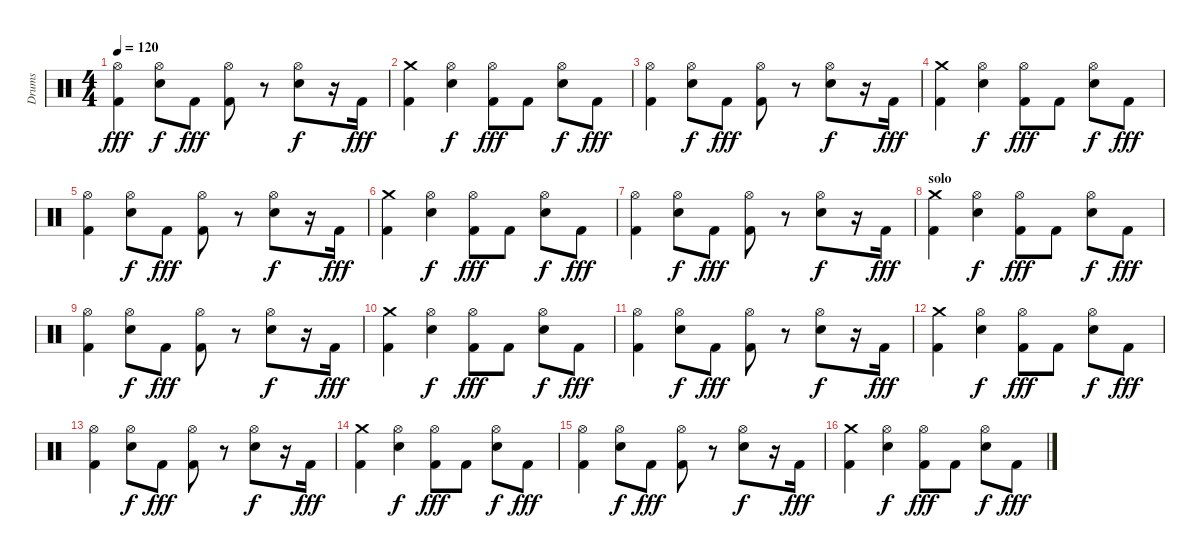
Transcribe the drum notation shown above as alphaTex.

\track ("Drums" "Drums") {instrument percussion}
\staff {score}
\articulation defaults
\ts (4 4)
\tempo 120
\clef neutral
\ks c
("Kick (hit) 2" "Hi-Hat (open)").4{dy fff} ("Electric Snare (hit)" "Hi-Hat (open)").8{dy f} "Kick (hit) 2".8{dy fff} ("Kick (hit) 2" "Hi-Hat (open)").8 r.8 ("Electric Snare (hit)" "Hi-Hat (open)").8{dy f} r.16 "Kick (hit) 2".16{dy fff} |
("Kick (hit) 2" "Crash medium (hit)").4 ("Electric Snare (hit)" "Hi-Hat (open)").4{dy f} ("Kick (hit) 2" "Hi-Hat (open)").8{dy fff} "Kick (hit) 2".8 ("Electric Snare (hit)" "Hi-Hat (open)").8{dy f} "Kick (hit) 2".8{dy fff} |
("Kick (hit) 2" "Hi-Hat (open)").4 ("Electric Snare (hit)" "Hi-Hat (open)").8{dy f} "Kick (hit) 2".8{dy fff} ("Kick (hit) 2" "Hi-Hat (open)").8 r.8 ("Electric Snare (hit)" "Hi-Hat (open)").8{dy f} r.16 "Kick (hit) 2".16{dy fff} |
("Kick (hit) 2" "Crash medium (hit)").4 ("Electric Snare (hit)" "Hi-Hat (open)").4{dy f} ("Kick (hit) 2" "Hi-Hat (open)").8{dy fff} "Kick (hit) 2".8 ("Electric Snare (hit)" "Hi-Hat (open)").8{dy f} "Kick (hit) 2".8{dy fff} |
("Kick (hit) 2" "Hi-Hat (open)").4 ("Electric Snare (hit)" "Hi-Hat (open)").8{dy f} "Kick (hit) 2".8{dy fff} ("Kick (hit) 2" "Hi-Hat (open)").8 r.8 ("Electric Snare (hit)" "Hi-Hat (open)").8{dy f} r.16 "Kick (hit) 2".16{dy fff} |
("Kick (hit) 2" "Crash medium (hit)").4 ("Electric Snare (hit)" "Hi-Hat (open)").4{dy f} ("Kick (hit) 2" "Hi-Hat (open)").8{dy fff} "Kick (hit) 2".8 ("Electric Snare (hit)" "Hi-Hat (open)").8{dy f} "Kick (hit) 2".8{dy fff} |
("Kick (hit) 2" "Hi-Hat (open)").4 ("Electric Snare (hit)" "Hi-Hat (open)").8{dy f} "Kick (hit) 2".8{dy fff} ("Kick (hit) 2" "Hi-Hat (open)").8 r.8 ("Electric Snare (hit)" "Hi-Hat (open)").8{dy f} r.16 "Kick (hit) 2".16{dy fff} |
\section ("" "solo")
("Kick (hit) 2" "Crash medium (hit)").4 ("Electric Snare (hit)" "Hi-Hat (open)").4{dy f} ("Kick (hit) 2" "Hi-Hat (open)").8{dy fff} "Kick (hit) 2".8 ("Electric Snare (hit)" "Hi-Hat (open)").8{dy f} "Kick (hit) 2".8{dy fff} |
("Kick (hit) 2" "Hi-Hat (open)").4 ("Electric Snare (hit)" "Hi-Hat (open)").8{dy f} "Kick (hit) 2".8{dy fff} ("Kick (hit) 2" "Hi-Hat (open)").8 r.8 ("Electric Snare (hit)" "Hi-Hat (open)").8{dy f} r.16 "Kick (hit) 2".16{dy fff} |
("Kick (hit) 2" "Crash medium (hit)").4 ("Electric Snare (hit)" "Hi-Hat (open)").4{dy f} ("Kick (hit) 2" "Hi-Hat (open)").8{dy fff} "Kick (hit) 2".8 ("Electric Snare (hit)" "Hi-Hat (open)").8{dy f} "Kick (hit) 2".8{dy fff} |
("Kick (hit) 2" "Hi-Hat (open)").4 ("Electric Snare (hit)" "Hi-Hat (open)").8{dy f} "Kick (hit) 2".8{dy fff} ("Kick (hit) 2" "Hi-Hat (open)").8 r.8 ("Electric Snare (hit)" "Hi-Hat (open)").8{dy f} r.16 "Kick (hit) 2".16{dy fff} |
("Kick (hit) 2" "Crash medium (hit)").4 ("Electric Snare (hit)" "Hi-Hat (open)").4{dy f} ("Kick (hit) 2" "Hi-Hat (open)").8{dy fff} "Kick (hit) 2".8 ("Electric Snare (hit)" "Hi-Hat (open)").8{dy f} "Kick (hit) 2".8{dy fff} |
("Kick (hit) 2" "Hi-Hat (open)").4 ("Electric Snare (hit)" "Hi-Hat (open)").8{dy f} "Kick (hit) 2".8{dy fff} ("Kick (hit) 2" "Hi-Hat (open)").8 r.8 ("Electric Snare (hit)" "Hi-Hat (open)").8{dy f} r.16 "Kick (hit) 2".16{dy fff} |
("Kick (hit) 2" "Crash medium (hit)").4 ("Electric Snare (hit)" "Hi-Hat (open)").4{dy f} ("Kick (hit) 2" "Hi-Hat (open)").8{dy fff} "Kick (hit) 2".8 ("Electric Snare (hit)" "Hi-Hat (open)").8{dy f} "Kick (hit) 2".8{dy fff} |
("Kick (hit) 2" "Hi-Hat (open)").4 ("Electric Snare (hit)" "Hi-Hat (open)").8{dy f} "Kick (hit) 2".8{dy fff} ("Kick (hit) 2" "Hi-Hat (open)").8 r.8 ("Electric Snare (hit)" "Hi-Hat (open)").8{dy f} r.16 "Kick (hit) 2".16{dy fff} |
("Kick (hit) 2" "Crash medium (hit)").4 ("Electric Snare (hit)" "Hi-Hat (open)").4{dy f} ("Kick (hit) 2" "Hi-Hat (open)").8{dy fff} "Kick (hit) 2".8 ("Electric Snare (hit)" "Hi-Hat (open)").8{dy f} "Kick (hit) 2".8{dy fff}
